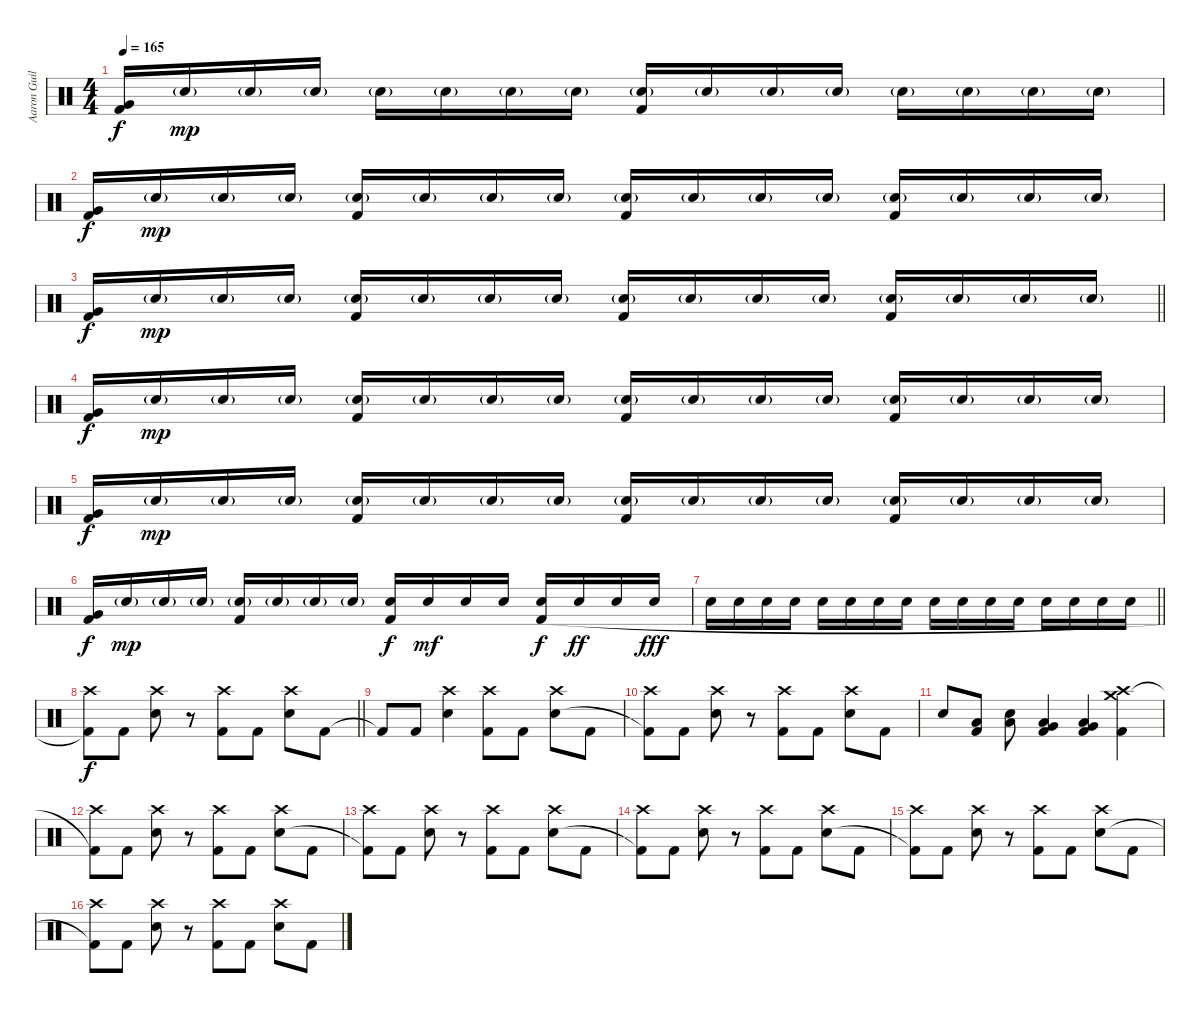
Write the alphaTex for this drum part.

\track ("Aaron Guillespie" "Aaron Guil") {instrument percussion}
\staff {score}
\articulation defaults
\ts (4 4)
\tempo 165
\clef neutral
\ks c
("Very Low Tom (hit)" "Kick (hit) 2").16{dy f} "Electric Snare (hit)"{g}.16{dy mp} "Electric Snare (hit)"{g}.16 "Electric Snare (hit)"{g}.16 "Electric Snare (hit)"{g}.16 "Electric Snare (hit)"{g}.16 "Electric Snare (hit)"{g}.16 "Electric Snare (hit)"{g}.16 ("Electric Snare (hit)"{g} "Kick (hit) 2").16 "Electric Snare (hit)"{g}.16 "Electric Snare (hit)"{g}.16 "Electric Snare (hit)"{g}.16 "Electric Snare (hit)"{g}.16 "Electric Snare (hit)"{g}.16 "Electric Snare (hit)"{g}.16 "Electric Snare (hit)"{g}.16 |
("Very Low Tom (hit)" "Kick (hit) 2").16{dy f} "Electric Snare (hit)"{g}.16{dy mp} "Electric Snare (hit)"{g}.16 "Electric Snare (hit)"{g}.16 ("Electric Snare (hit)"{g} "Kick (hit) 2").16 "Electric Snare (hit)"{g}.16 "Electric Snare (hit)"{g}.16 "Electric Snare (hit)"{g}.16 ("Electric Snare (hit)"{g} "Kick (hit) 2").16 "Electric Snare (hit)"{g}.16 "Electric Snare (hit)"{g}.16 "Electric Snare (hit)"{g}.16 ("Electric Snare (hit)"{g} "Kick (hit) 2").16 "Electric Snare (hit)"{g}.16 "Electric Snare (hit)"{g}.16 "Electric Snare (hit)"{g}.16 |
\barLineRight lightlight
("Very Low Tom (hit)" "Kick (hit) 2").16{dy f} "Electric Snare (hit)"{g}.16{dy mp} "Electric Snare (hit)"{g}.16 "Electric Snare (hit)"{g}.16 ("Electric Snare (hit)"{g} "Kick (hit) 2").16 "Electric Snare (hit)"{g}.16 "Electric Snare (hit)"{g}.16 "Electric Snare (hit)"{g}.16 ("Electric Snare (hit)"{g} "Kick (hit) 2").16 "Electric Snare (hit)"{g}.16 "Electric Snare (hit)"{g}.16 "Electric Snare (hit)"{g}.16 ("Electric Snare (hit)"{g} "Kick (hit) 2").16 "Electric Snare (hit)"{g}.16 "Electric Snare (hit)"{g}.16 "Electric Snare (hit)"{g}.16 |
("Very Low Tom (hit)" "Kick (hit) 2").16{dy f} "Electric Snare (hit)"{g}.16{dy mp} "Electric Snare (hit)"{g}.16 "Electric Snare (hit)"{g}.16 ("Electric Snare (hit)"{g} "Kick (hit) 2").16 "Electric Snare (hit)"{g}.16 "Electric Snare (hit)"{g}.16 "Electric Snare (hit)"{g}.16 ("Electric Snare (hit)"{g} "Kick (hit) 2").16 "Electric Snare (hit)"{g}.16 "Electric Snare (hit)"{g}.16 "Electric Snare (hit)"{g}.16 ("Electric Snare (hit)"{g} "Kick (hit) 2").16 "Electric Snare (hit)"{g}.16 "Electric Snare (hit)"{g}.16 "Electric Snare (hit)"{g}.16 |
("Very Low Tom (hit)" "Kick (hit) 2").16{dy f} "Electric Snare (hit)"{g}.16{dy mp} "Electric Snare (hit)"{g}.16 "Electric Snare (hit)"{g}.16 ("Electric Snare (hit)"{g} "Kick (hit) 2").16 "Electric Snare (hit)"{g}.16 "Electric Snare (hit)"{g}.16 "Electric Snare (hit)"{g}.16 ("Electric Snare (hit)"{g} "Kick (hit) 2").16 "Electric Snare (hit)"{g}.16 "Electric Snare (hit)"{g}.16 "Electric Snare (hit)"{g}.16 ("Electric Snare (hit)"{g} "Kick (hit) 2").16 "Electric Snare (hit)"{g}.16 "Electric Snare (hit)"{g}.16 "Electric Snare (hit)"{g}.16 |
("Very Low Tom (hit)" "Kick (hit) 2").16{dy f} "Electric Snare (hit)"{g}.16{dy mp} "Electric Snare (hit)"{g}.16 "Electric Snare (hit)"{g}.16 ("Electric Snare (hit)"{g} "Kick (hit) 2").16 "Electric Snare (hit)"{g}.16 "Electric Snare (hit)"{g}.16 "Electric Snare (hit)"{g}.16 ("Electric Snare (hit)" "Kick (hit) 2").16{dy f} "Electric Snare (hit)".16{dy mf} "Electric Snare (hit)".16 "Electric Snare (hit)".16 ("Electric Snare (hit)" "Kick (hit) 2").16{dy f} "Electric Snare (hit)".16{dy ff} "Electric Snare (hit)".16 "Electric Snare (hit)".16{dy fff} |
\barLineRight lightlight "Electric Snare (hit)".16 "Electric Snare (hit)".16 "Electric Snare (hit)".16 "Electric Snare (hit)".16 "Electric Snare (hit)".16 "Electric Snare (hit)".16 "Electric Snare (hit)".16 "Electric Snare (hit)".16 "Electric Snare (hit)".16 "Electric Snare (hit)".16 "Electric Snare (hit)".16 "Electric Snare (hit)".16 "Electric Snare (hit)".16 "Electric Snare (hit)".16 "Electric Snare (hit)".16 "Electric Snare (hit)".16
|
\section ("" "")
\barLineRight lightlight
("Crash high (hit)" "Kick (hit) 2"{t}).8{dy f} "Kick (hit) 2".8 ("Crash high (hit)" "Electric Snare (hit)").8 r.8 ("Crash high (hit)" "Kick (hit) 2").8 "Kick (hit) 2".8 ("Crash high (hit)" "Electric Snare (hit)").8 "Kick (hit) 2".8 |
"Kick (hit) 2"{t}.8 "Kick (hit) 2".8 ("Crash high (hit)" "Electric Snare (hit)").4 ("Crash high (hit)" "Kick (hit) 2").8 "Kick (hit) 2".8 ("Crash high (hit)" "Electric Snare (hit)").8 "Kick (hit) 2".8 |
("Crash high (hit)" "Kick (hit) 2"{t}).8 "Kick (hit) 2".8 ("Crash high (hit)" "Electric Snare (hit)").8 r.8 ("Crash high (hit)" "Kick (hit) 2").8 "Kick (hit) 2".8 ("Crash high (hit)" "Electric Snare (hit)").8 "Kick (hit) 2".8 |
"Electric Snare (hit)".8 ("Low Tom (hit)" "Kick (hit) 2").8 ("Low Tom (hit)" "Electric Snare (hit)").8 ("Low Tom (hit)" "Very Low Tom (hit)" "Kick (hit) 2").4 ("Low Tom (hit)" "Very Low Tom (hit)" "Kick (hit) 2").4 ("Crash high (hit)" "Crash medium (hit)" "Kick (hit) 2").4 |
("Crash high (hit)" "Kick (hit) 2"{t}).8 "Kick (hit) 2".8 ("Crash high (hit)" "Electric Snare (hit)").8 r.8 ("Crash high (hit)" "Kick (hit) 2").8 "Kick (hit) 2".8 ("Crash high (hit)" "Electric Snare (hit)").8 "Kick (hit) 2".8 |
("Crash high (hit)" "Kick (hit) 2"{t}).8 "Kick (hit) 2".8 ("Crash high (hit)" "Electric Snare (hit)").8 r.8 ("Crash high (hit)" "Kick (hit) 2").8 "Kick (hit) 2".8 ("Crash high (hit)" "Electric Snare (hit)").8 "Kick (hit) 2".8 |
("Crash high (hit)" "Kick (hit) 2"{t}).8 "Kick (hit) 2".8 ("Crash high (hit)" "Electric Snare (hit)").8 r.8 ("Crash high (hit)" "Kick (hit) 2").8 "Kick (hit) 2".8 ("Crash high (hit)" "Electric Snare (hit)").8 "Kick (hit) 2".8 |
("Crash high (hit)" "Kick (hit) 2"{t}).8 "Kick (hit) 2".8 ("Crash high (hit)" "Electric Snare (hit)").8 r.8 ("Crash high (hit)" "Kick (hit) 2").8 "Kick (hit) 2".8 ("Crash high (hit)" "Electric Snare (hit)").8 "Kick (hit) 2".8 |
("Crash high (hit)" "Kick (hit) 2"{t}).8 "Kick (hit) 2".8 ("Crash high (hit)" "Electric Snare (hit)").8 r.8 ("Crash high (hit)" "Kick (hit) 2").8 "Kick (hit) 2".8 ("Crash high (hit)" "Electric Snare (hit)").8 "Kick (hit) 2".8
